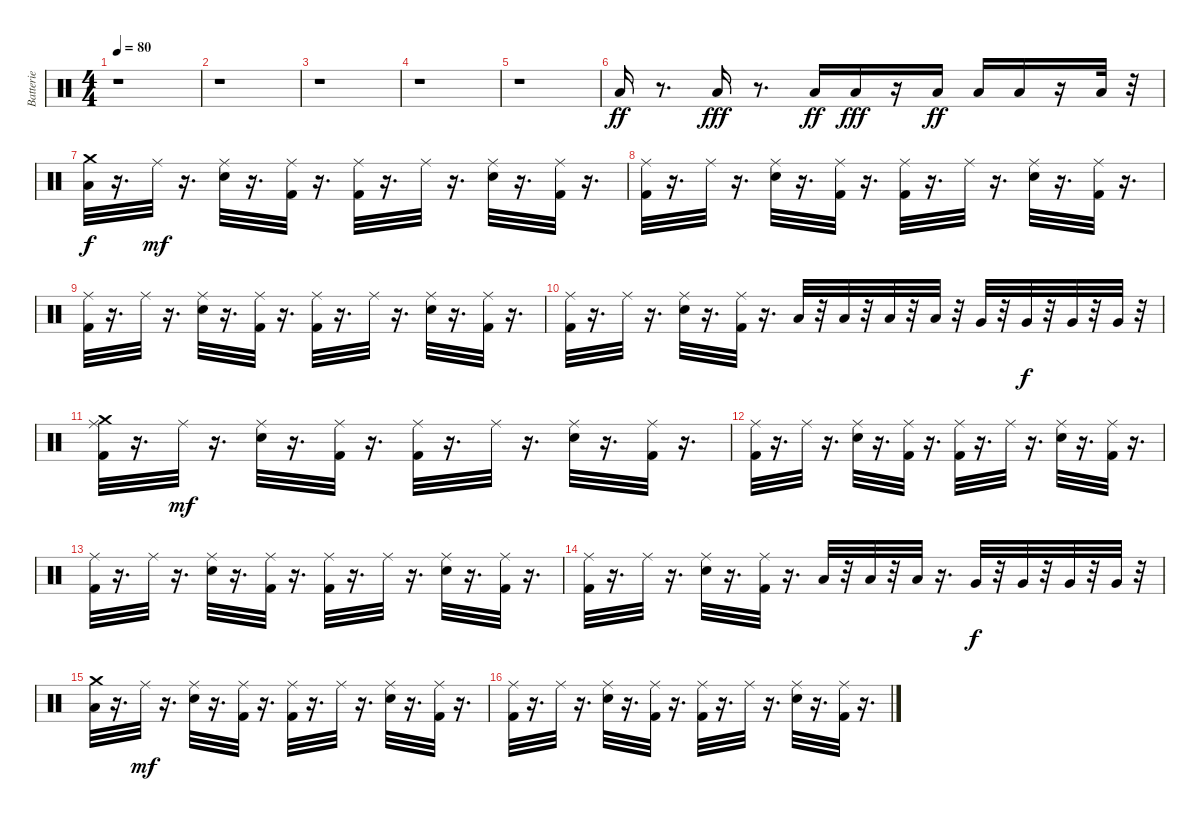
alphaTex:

\track ("Batterie" "Batterie") {instrument percussion}
\staff {score}
\articulation defaults
\ts (4 4)
\tempo 80
\clef neutral
\ks c
r.1{dy pp} |
r.1 |
r.1 |
r.1 |
r.1 |
"Low Tom (hit)".16{dy ff} r.8{d} "Low Floor Tom (hit)".16{dy fff} r.8{d} "Low Tom (hit)".16{dy ff} "Low Tom (hit)".16{dy fff} r.16 "Low Tom (hit)".16{dy ff} "Low Floor Tom (hit)".16 "Low Floor Tom (hit)".16 r.16 "Low Floor Tom (hit)".32 r.32 |
("Crash medium (hit)" "Low Floor Tom (hit)").32{dy f} r.16{d} "Ride (middle)".32{dy mf} r.16{d} ("Ride (middle)" "Electric Snare (hit)").32 r.16{d} ("Ride (middle)" "Kick (hit) 2").32 r.16{d} ("Ride (middle)" "Kick (hit) 2").32 r.16{d} "Ride (middle)".32 r.16{d} ("Ride (middle)" "Electric Snare (hit)").32 r.16{d} ("Kick (hit) 2" "Ride (middle)").32 r.16{d} |
("Kick (hit) 2" "Ride (middle)").32 r.16{d} "Ride (middle)".32 r.16{d} ("Electric Snare (hit)" "Ride (middle)").32 r.16{d} ("Ride (middle)" "Kick (hit) 2").32 r.16{d} ("Kick (hit) 2" "Ride (middle)").32 r.16{d} "Ride (middle)".32 r.16{d} ("Ride (middle)" "Electric Snare (hit)").32 r.16{d} ("Kick (hit) 2" "Ride (middle)").32 r.16{d} |
("Kick (hit) 2" "Ride (middle)").32 r.16{d} "Ride (middle)".32 r.16{d} ("Ride (middle)" "Electric Snare (hit)").32 r.16{d} ("Kick (hit) 2" "Ride (middle)").32 r.16{d} ("Ride (middle)" "Kick (hit) 2").32 r.16{d} "Ride (middle)".32 r.16{d} ("Ride (middle)" "Electric Snare (hit)").32 r.16{d} ("Ride (middle)" "Kick (hit) 2").32 r.16{d} |
("Kick (hit) 2" "Ride (middle)").32 r.16{d} "Ride (middle)".32 r.16{d} ("Ride (middle)" "Electric Snare (hit)").32 r.16{d} ("Ride (middle)" "Kick (hit) 2").32 r.16{d} "Low Tom (hit)".32 r.32 "Low Tom (hit)".32 r.32 "Low Tom (hit)".32 r.32 "Low Tom (hit)".32 r.32 "Very Low Tom (hit)".32 r.32 "Very Low Tom (hit)".32{dy f} r.32 "Very Low Tom (hit)".32 r.32 "Very Low Tom (hit)".32 r.32 |
("Crash medium (hit)" "Ride (middle)" "Kick (hit) 2").32 r.16{d} "Ride (middle)".32{dy mf} r.16{d} ("Electric Snare (hit)" "Ride (middle)").32 r.16{d} ("Kick (hit) 2" "Ride (middle)").32 r.16{d} ("Kick (hit) 2" "Ride (middle)").32 r.16{d} "Ride (middle)".32 r.16{d} ("Ride (middle)" "Electric Snare (hit)").32 r.16{d} ("Kick (hit) 2" "Ride (middle)").32 r.16{d} |
("Ride (middle)" "Kick (hit) 2").32 r.16{d} "Ride (middle)".32 r.16{d} ("Ride (middle)" "Electric Snare (hit)").32 r.16{d} ("Ride (middle)" "Kick (hit) 2").32 r.16{d} ("Kick (hit) 2" "Ride (middle)").32 r.16{d} "Ride (middle)".32 r.16{d} ("Ride (middle)" "Electric Snare (hit)").32 r.16{d} ("Ride (middle)" "Kick (hit) 2").32 r.16{d} |
("Ride (middle)" "Kick (hit) 2").32 r.16{d} "Ride (middle)".32 r.16{d} ("Ride (middle)" "Electric Snare (hit)").32 r.16{d} ("Ride (middle)" "Kick (hit) 2").32 r.16{d} ("Kick (hit) 2" "Ride (middle)").32 r.16{d} "Ride (middle)".32 r.16{d} ("Ride (middle)" "Electric Snare (hit)").32 r.16{d} ("Kick (hit) 2" "Ride (middle)").32 r.16{d} |
("Ride (middle)" "Kick (hit) 2").32 r.16{d} "Ride (middle)".32 r.16{d} ("Ride (middle)" "Electric Snare (hit)").32 r.16{d} ("Ride (middle)" "Kick (hit) 2").32 r.16{d} "Low Tom (hit)".32 r.32 "Low Tom (hit)".32 r.32 "Low Tom (hit)".32 r.16{d} "Very Low Tom (hit)".32{dy f} r.32 "Very Low Tom (hit)".32 r.32 "Very Low Tom (hit)".32 r.32 "Very Low Tom (hit)".32 r.32 |
("Crash medium (hit)" "Low Floor Tom (hit)").32 r.16{d} "Ride (middle)".32{dy mf} r.16{d} ("Electric Snare (hit)" "Ride (middle)").32 r.16{d} ("Ride (middle)" "Kick (hit) 2").32 r.16{d} ("Ride (middle)" "Kick (hit) 2").32 r.16{d} "Ride (middle)".32 r.16{d} ("Ride (middle)" "Electric Snare (hit)").32 r.16{d} ("Kick (hit) 2" "Ride (middle)").32 r.16{d} |
("Ride (middle)" "Kick (hit) 2").32 r.16{d} "Ride (middle)".32 r.16{d} ("Electric Snare (hit)" "Ride (middle)").32 r.16{d} ("Kick (hit) 2" "Ride (middle)").32 r.16{d} ("Kick (hit) 2" "Ride (middle)").32 r.16{d} "Ride (middle)".32 r.16{d} ("Electric Snare (hit)" "Ride (middle)").32 r.16{d} ("Kick (hit) 2" "Ride (middle)").32 r.16{d}
